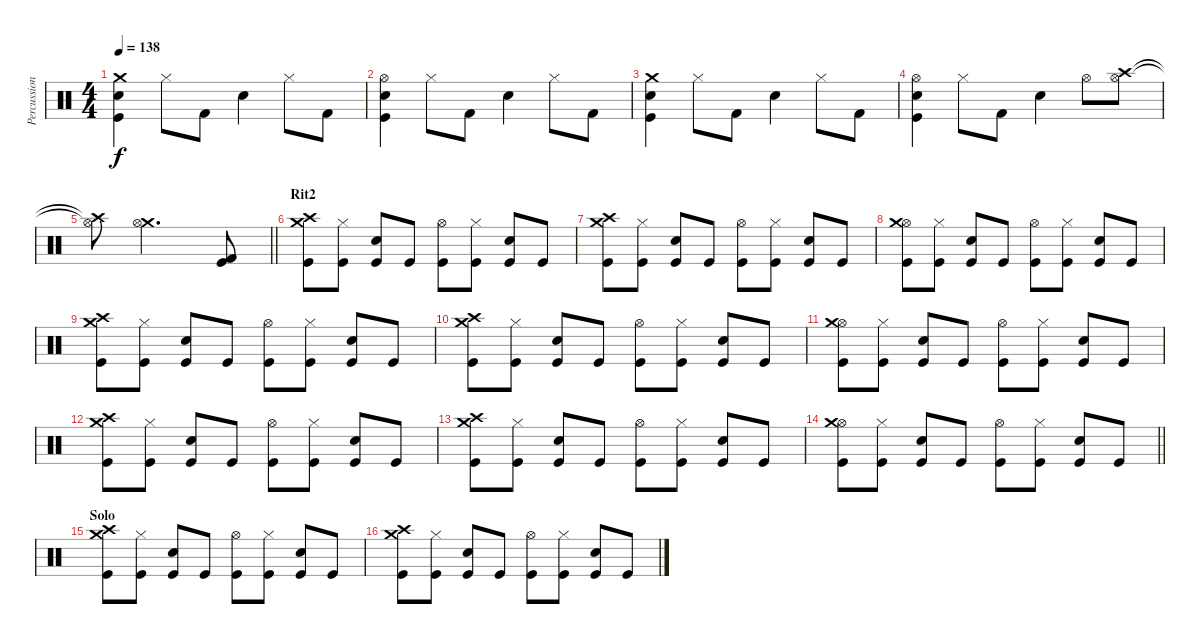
\track ("Percussioni" "Percussion") {instrument percussion}
\staff {score}
\articulation defaults
\ts (4 4)
\tempo 138
\clef neutral
\ks c
("Crash medium (hit)" "Electric Snare (hit)" "Kick (hit)").4{dy f} "Hi-Hat (closed)".8 "Kick (hit) 2".8 "Electric Snare (hit)".4 "Hi-Hat (closed)".8 "Kick (hit) 2".8 |
("Hi-Hat (open)" "Electric Snare (hit)" "Kick (hit)").4 "Hi-Hat (closed)".8 "Kick (hit) 2".8 "Electric Snare (hit)".4 "Hi-Hat (closed)".8 "Kick (hit) 2".8 |
("Crash medium (hit)" "Electric Snare (hit)" "Kick (hit)").4 "Hi-Hat (closed)".8 "Kick (hit) 2".8 "Electric Snare (hit)".4 "Hi-Hat (closed)".8 "Kick (hit) 2".8 |
("Hi-Hat (open)" "Electric Snare (hit)" "Kick (hit)").4 "Hi-Hat (closed)".8 "Kick (hit) 2".8 "Electric Snare (hit)".4 "Hi-Hat (open)".8 ("Crash high (hit)" "Hi-Hat (open)").8 |
\barLineRight lightlight
("Crash high (hit)"{t} "Hi-Hat (open)"{t}).8 ("Crash medium (hit)" "Hi-Hat (open)").2{d} ("Kick (hit)" "Kick (hit) 2").8{volume 13} |
\section ("" "Rit2")
("Kick (hit)" "Crash high (hit)" "Crash medium (hit)").8 ("Hi-Hat (closed)" "Kick (hit)").8 ("Electric Snare (hit)" "Kick (hit)").8 "Kick (hit)".8 ("Hi-Hat (open)" "Kick (hit)").8 ("Hi-Hat (closed)" "Kick (hit)").8 ("Electric Snare (hit)" "Kick (hit)").8 "Kick (hit)".8 |
("Kick (hit)" "Crash high (hit)" "Crash medium (hit)").8 ("Hi-Hat (closed)" "Kick (hit)").8 ("Electric Snare (hit)" "Kick (hit)").8 "Kick (hit)".8 ("Hi-Hat (open)" "Kick (hit)").8 ("Hi-Hat (closed)" "Kick (hit)").8 ("Electric Snare (hit)" "Kick (hit)").8 "Kick (hit)".8 |
("Kick (hit)" "Hi-Hat (open)" "Crash medium (hit)").8 ("Hi-Hat (closed)" "Kick (hit)").8 ("Electric Snare (hit)" "Kick (hit)").8 "Kick (hit)".8 ("Hi-Hat (open)" "Kick (hit)").8 ("Hi-Hat (closed)" "Kick (hit)").8 ("Electric Snare (hit)" "Kick (hit)").8 "Kick (hit)".8 |
("Kick (hit)" "Crash high (hit)" "Crash medium (hit)").8 ("Hi-Hat (closed)" "Kick (hit)").8 ("Electric Snare (hit)" "Kick (hit)").8 "Kick (hit)".8 ("Hi-Hat (open)" "Kick (hit)").8 ("Hi-Hat (closed)" "Kick (hit)").8 ("Electric Snare (hit)" "Kick (hit)").8 "Kick (hit)".8 |
("Kick (hit)" "Crash high (hit)" "Crash medium (hit)").8 ("Hi-Hat (closed)" "Kick (hit)").8 ("Electric Snare (hit)" "Kick (hit)").8 "Kick (hit)".8 ("Hi-Hat (open)" "Kick (hit)").8 ("Hi-Hat (closed)" "Kick (hit)").8 ("Electric Snare (hit)" "Kick (hit)").8 "Kick (hit)".8 |
("Kick (hit)" "Hi-Hat (open)" "Crash medium (hit)").8 ("Hi-Hat (closed)" "Kick (hit)").8 ("Electric Snare (hit)" "Kick (hit)").8 "Kick (hit)".8 ("Hi-Hat (open)" "Kick (hit)").8 ("Hi-Hat (closed)" "Kick (hit)").8 ("Electric Snare (hit)" "Kick (hit)").8 "Kick (hit)".8 |
("Kick (hit)" "Crash high (hit)" "Crash medium (hit)").8 ("Hi-Hat (closed)" "Kick (hit)").8 ("Electric Snare (hit)" "Kick (hit)").8 "Kick (hit)".8 ("Hi-Hat (open)" "Kick (hit)").8 ("Hi-Hat (closed)" "Kick (hit)").8 ("Electric Snare (hit)" "Kick (hit)").8 "Kick (hit)".8 |
("Kick (hit)" "Crash high (hit)" "Crash medium (hit)").8 ("Hi-Hat (closed)" "Kick (hit)").8 ("Electric Snare (hit)" "Kick (hit)").8 "Kick (hit)".8 ("Hi-Hat (open)" "Kick (hit)").8 ("Hi-Hat (closed)" "Kick (hit)").8 ("Electric Snare (hit)" "Kick (hit)").8 "Kick (hit)".8 |
\barLineRight lightlight
("Kick (hit)" "Hi-Hat (open)" "Crash medium (hit)").8 ("Hi-Hat (closed)" "Kick (hit)").8 ("Electric Snare (hit)" "Kick (hit)").8 "Kick (hit)".8 ("Hi-Hat (open)" "Kick (hit)").8 ("Hi-Hat (closed)" "Kick (hit)").8 ("Electric Snare (hit)" "Kick (hit)").8 "Kick (hit)".8 |
\section ("" "Solo")
("Kick (hit)" "Crash high (hit)" "Crash medium (hit)").8 ("Hi-Hat (closed)" "Kick (hit)").8 ("Electric Snare (hit)" "Kick (hit)").8 "Kick (hit)".8 ("Hi-Hat (open)" "Kick (hit)").8 ("Hi-Hat (closed)" "Kick (hit)").8 ("Electric Snare (hit)" "Kick (hit)").8 "Kick (hit)".8 |
("Kick (hit)" "Crash high (hit)" "Crash medium (hit)").8 ("Hi-Hat (closed)" "Kick (hit)").8 ("Electric Snare (hit)" "Kick (hit)").8 "Kick (hit)".8 ("Hi-Hat (open)" "Kick (hit)").8 ("Hi-Hat (closed)" "Kick (hit)").8 ("Electric Snare (hit)" "Kick (hit)").8 "Kick (hit)".8
